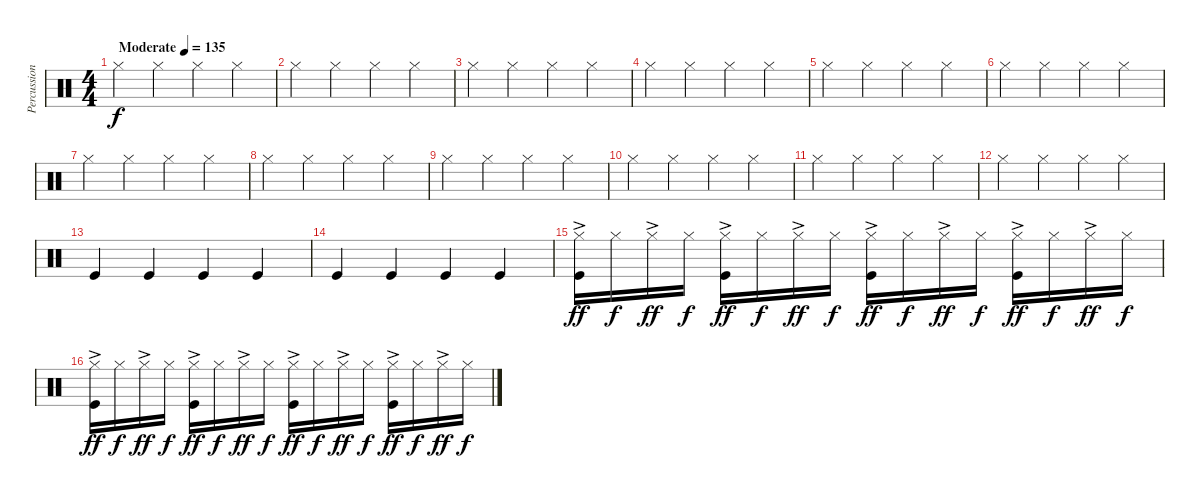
\track ("Percussion" "Percussion") {instrument percussion}
\staff {score}
\articulation defaults
\ts (4 4)
\tempo (135 "Moderate")
\clef neutral
\ks c "Hi-Hat (closed)".4{dy f} "Hi-Hat (closed)".4 "Hi-Hat (closed)".4 "Hi-Hat (closed)".4
|
"Hi-Hat (closed)".4 "Hi-Hat (closed)".4 "Hi-Hat (closed)".4 "Hi-Hat (closed)".4 |
"Hi-Hat (closed)".4 "Hi-Hat (closed)".4 "Hi-Hat (closed)".4 "Hi-Hat (closed)".4 |
"Hi-Hat (closed)".4 "Hi-Hat (closed)".4 "Hi-Hat (closed)".4 "Hi-Hat (closed)".4 |
"Hi-Hat (closed)".4 "Hi-Hat (closed)".4 "Hi-Hat (closed)".4 "Hi-Hat (closed)".4 |
"Hi-Hat (closed)".4 "Hi-Hat (closed)".4 "Hi-Hat (closed)".4 "Hi-Hat (closed)".4 |
"Hi-Hat (closed)".4 "Hi-Hat (closed)".4 "Hi-Hat (closed)".4 "Hi-Hat (closed)".4 |
"Hi-Hat (closed)".4 "Hi-Hat (closed)".4 "Hi-Hat (closed)".4 "Hi-Hat (closed)".4 |
"Hi-Hat (closed)".4 "Hi-Hat (closed)".4 "Hi-Hat (closed)".4 "Hi-Hat (closed)".4 |
"Hi-Hat (closed)".4 "Hi-Hat (closed)".4 "Hi-Hat (closed)".4 "Hi-Hat (closed)".4 |
"Hi-Hat (closed)".4 "Hi-Hat (closed)".4 "Hi-Hat (closed)".4 "Hi-Hat (closed)".4 |
"Hi-Hat (closed)".4 "Hi-Hat (closed)".4 "Hi-Hat (closed)".4 "Hi-Hat (closed)".4 |
"Kick (hit)".4 "Kick (hit)".4 "Kick (hit)".4 "Kick (hit)".4 |
"Kick (hit)".4 "Kick (hit)".4 "Kick (hit)".4 "Kick (hit)".4 |
("Kick (hit)" "Hi-Hat (closed)"{ac}).16{dy ff} "Hi-Hat (closed)".16{dy f} "Hi-Hat (closed)"{ac}.16{dy ff} "Hi-Hat (closed)".16{dy f} ("Kick (hit)" "Hi-Hat (closed)"{ac}).16{dy ff} "Hi-Hat (closed)".16{dy f} "Hi-Hat (closed)"{ac}.16{dy ff} "Hi-Hat (closed)".16{dy f} ("Kick (hit)" "Hi-Hat (closed)"{ac}).16{dy ff} "Hi-Hat (closed)".16{dy f} "Hi-Hat (closed)"{ac}.16{dy ff} "Hi-Hat (closed)".16{dy f} ("Kick (hit)" "Hi-Hat (closed)"{ac}).16{dy ff} "Hi-Hat (closed)".16{dy f} "Hi-Hat (closed)"{ac}.16{dy ff} "Hi-Hat (closed)".16{dy f} |
("Kick (hit)" "Hi-Hat (closed)"{ac}).16{dy ff} "Hi-Hat (closed)".16{dy f} "Hi-Hat (closed)"{ac}.16{dy ff} "Hi-Hat (closed)".16{dy f} ("Kick (hit)" "Hi-Hat (closed)"{ac}).16{dy ff} "Hi-Hat (closed)".16{dy f} "Hi-Hat (closed)"{ac}.16{dy ff} "Hi-Hat (closed)".16{dy f} ("Kick (hit)" "Hi-Hat (closed)"{ac}).16{dy ff} "Hi-Hat (closed)".16{dy f} "Hi-Hat (closed)"{ac}.16{dy ff} "Hi-Hat (closed)".16{dy f} ("Kick (hit)" "Hi-Hat (closed)"{ac}).16{dy ff} "Hi-Hat (closed)".16{dy f} "Hi-Hat (closed)"{ac}.16{dy ff} "Hi-Hat (closed)".16{dy f}
